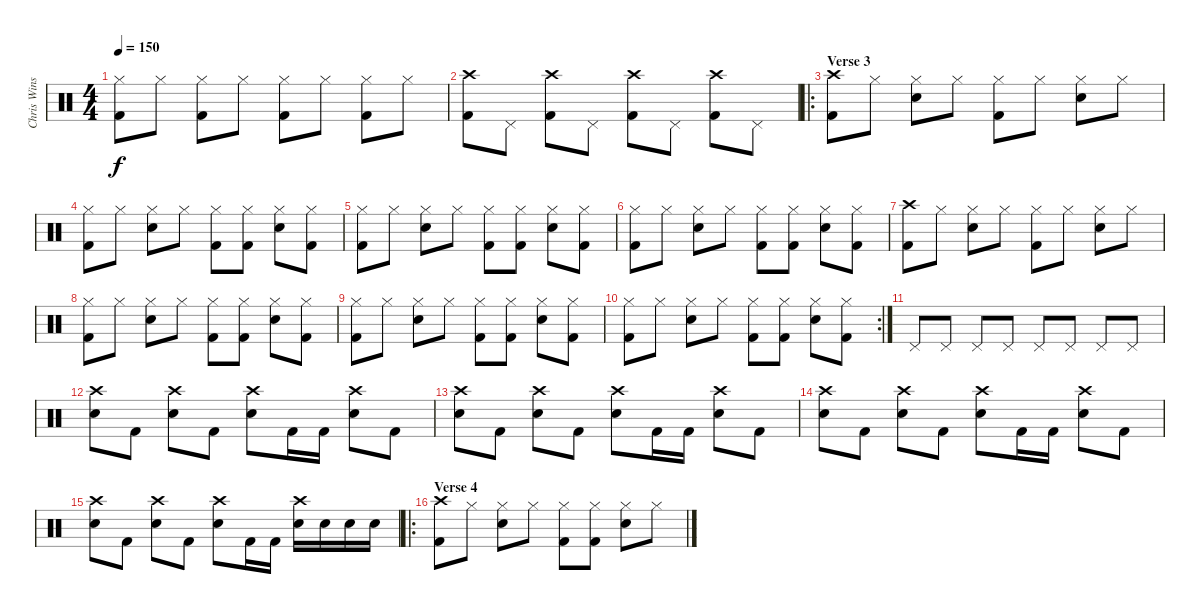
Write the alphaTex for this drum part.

\track ("Chris Winship (Drums)" "Chris Wins") {instrument percussion}
\staff {score}
\articulation defaults
\ts (4 4)
\tempo 150
\clef neutral
\ks c
("Hi-Hat (closed)" "Kick (hit) 2").8{dy f} "Hi-Hat (closed)".8 ("Hi-Hat (closed)" "Kick (hit) 2").8 "Hi-Hat (closed)".8 ("Hi-Hat (closed)" "Kick (hit) 2").8 "Hi-Hat (closed)".8 ("Hi-Hat (closed)" "Kick (hit) 2").8 "Hi-Hat (closed)".8 |
("Crash high (hit)" "Kick (hit) 2").8 "Pedal Hi-Hat (hit)".8 ("Crash high (hit)" "Kick (hit) 2").8 "Pedal Hi-Hat (hit)".8 ("Crash high (hit)" "Kick (hit) 2").8 "Pedal Hi-Hat (hit)".8 ("Crash high (hit)" "Kick (hit) 2").8 "Pedal Hi-Hat (hit)".8 |
\ro
\section ("" "Verse 3")
("Crash high (hit)" "Kick (hit) 2").8 "Hi-Hat (closed)".8 ("Hi-Hat (closed)" "Electric Snare (hit)").8 "Hi-Hat (closed)".8 ("Hi-Hat (closed)" "Kick (hit) 2").8 "Hi-Hat (closed)".8 ("Hi-Hat (closed)" "Electric Snare (hit)").8 "Hi-Hat (closed)".8 |
("Hi-Hat (closed)" "Kick (hit) 2").8 "Hi-Hat (closed)".8 ("Hi-Hat (closed)" "Electric Snare (hit)").8 "Hi-Hat (closed)".8 ("Hi-Hat (closed)" "Kick (hit) 2").8 ("Hi-Hat (closed)" "Kick (hit) 2").8 ("Hi-Hat (closed)" "Electric Snare (hit)").8 ("Hi-Hat (closed)" "Kick (hit) 2").8 |
("Hi-Hat (closed)" "Kick (hit) 2").8 "Hi-Hat (closed)".8 ("Hi-Hat (closed)" "Electric Snare (hit)").8 "Hi-Hat (closed)".8 ("Hi-Hat (closed)" "Kick (hit) 2").8 ("Hi-Hat (closed)" "Kick (hit) 2").8 ("Hi-Hat (closed)" "Electric Snare (hit)").8 ("Hi-Hat (closed)" "Kick (hit) 2").8 |
("Hi-Hat (closed)" "Kick (hit) 2").8 "Hi-Hat (closed)".8 ("Hi-Hat (closed)" "Electric Snare (hit)").8 "Hi-Hat (closed)".8 ("Hi-Hat (closed)" "Kick (hit) 2").8 ("Hi-Hat (closed)" "Kick (hit) 2").8 ("Hi-Hat (closed)" "Electric Snare (hit)").8 ("Hi-Hat (closed)" "Kick (hit) 2").8 |
("Crash high (hit)" "Kick (hit) 2").8 "Hi-Hat (closed)".8 ("Hi-Hat (closed)" "Electric Snare (hit)").8 "Hi-Hat (closed)".8 ("Hi-Hat (closed)" "Kick (hit) 2").8 "Hi-Hat (closed)".8 ("Hi-Hat (closed)" "Electric Snare (hit)").8 "Hi-Hat (closed)".8 |
("Hi-Hat (closed)" "Kick (hit) 2").8 "Hi-Hat (closed)".8 ("Hi-Hat (closed)" "Electric Snare (hit)").8 "Hi-Hat (closed)".8 ("Hi-Hat (closed)" "Kick (hit) 2").8 ("Hi-Hat (closed)" "Kick (hit) 2").8 ("Hi-Hat (closed)" "Electric Snare (hit)").8 ("Hi-Hat (closed)" "Kick (hit) 2").8 |
("Hi-Hat (closed)" "Kick (hit) 2").8 "Hi-Hat (closed)".8 ("Hi-Hat (closed)" "Electric Snare (hit)").8 "Hi-Hat (closed)".8 ("Hi-Hat (closed)" "Kick (hit) 2").8 ("Hi-Hat (closed)" "Kick (hit) 2").8 ("Hi-Hat (closed)" "Electric Snare (hit)").8 ("Hi-Hat (closed)" "Kick (hit) 2").8 |
\rc 2
("Hi-Hat (closed)" "Kick (hit) 2").8 "Hi-Hat (closed)".8 ("Hi-Hat (closed)" "Electric Snare (hit)").8 "Hi-Hat (closed)".8 ("Hi-Hat (closed)" "Kick (hit) 2").8 ("Hi-Hat (closed)" "Kick (hit) 2").8 ("Hi-Hat (closed)" "Electric Snare (hit)").8 ("Hi-Hat (closed)" "Kick (hit) 2").8 |
"Pedal Hi-Hat (hit)".8 "Pedal Hi-Hat (hit)".8 "Pedal Hi-Hat (hit)".8 "Pedal Hi-Hat (hit)".8 "Pedal Hi-Hat (hit)".8 "Pedal Hi-Hat (hit)".8 "Pedal Hi-Hat (hit)".8 "Pedal Hi-Hat (hit)".8 |
("Crash high (hit)" "Electric Snare (hit)").8 "Kick (hit) 2".8 ("Crash high (hit)" "Electric Snare (hit)").8 "Kick (hit) 2".8 ("Crash high (hit)" "Electric Snare (hit)").8 "Kick (hit) 2".16 "Kick (hit) 2".16 ("Crash high (hit)" "Electric Snare (hit)").8 "Kick (hit) 2".8 |
("Crash high (hit)" "Electric Snare (hit)").8 "Kick (hit) 2".8 ("Crash high (hit)" "Electric Snare (hit)").8 "Kick (hit) 2".8 ("Crash high (hit)" "Electric Snare (hit)").8 "Kick (hit) 2".16 "Kick (hit) 2".16 ("Crash high (hit)" "Electric Snare (hit)").8 "Kick (hit) 2".8 |
("Crash high (hit)" "Electric Snare (hit)").8 "Kick (hit) 2".8 ("Crash high (hit)" "Electric Snare (hit)").8 "Kick (hit) 2".8 ("Crash high (hit)" "Electric Snare (hit)").8 "Kick (hit) 2".16 "Kick (hit) 2".16 ("Crash high (hit)" "Electric Snare (hit)").8 "Kick (hit) 2".8 |
("Crash high (hit)" "Electric Snare (hit)").8 "Kick (hit) 2".8 ("Crash high (hit)" "Electric Snare (hit)").8 "Kick (hit) 2".8 ("Crash high (hit)" "Electric Snare (hit)").8 "Kick (hit) 2".16 "Kick (hit) 2".16 ("Crash high (hit)" "Electric Snare (hit)").16 "Electric Snare (hit)".16 "Electric Snare (hit)".16 "Electric Snare (hit)".16 |
\ro
\section ("" "Verse 4")
("Crash high (hit)" "Kick (hit) 2").8 "Hi-Hat (closed)".8 ("Hi-Hat (closed)" "Electric Snare (hit)").8 "Hi-Hat (closed)".8 ("Hi-Hat (closed)" "Kick (hit) 2").8 ("Hi-Hat (closed)" "Kick (hit) 2").8 ("Hi-Hat (closed)" "Electric Snare (hit)").8 "Hi-Hat (closed)".8
